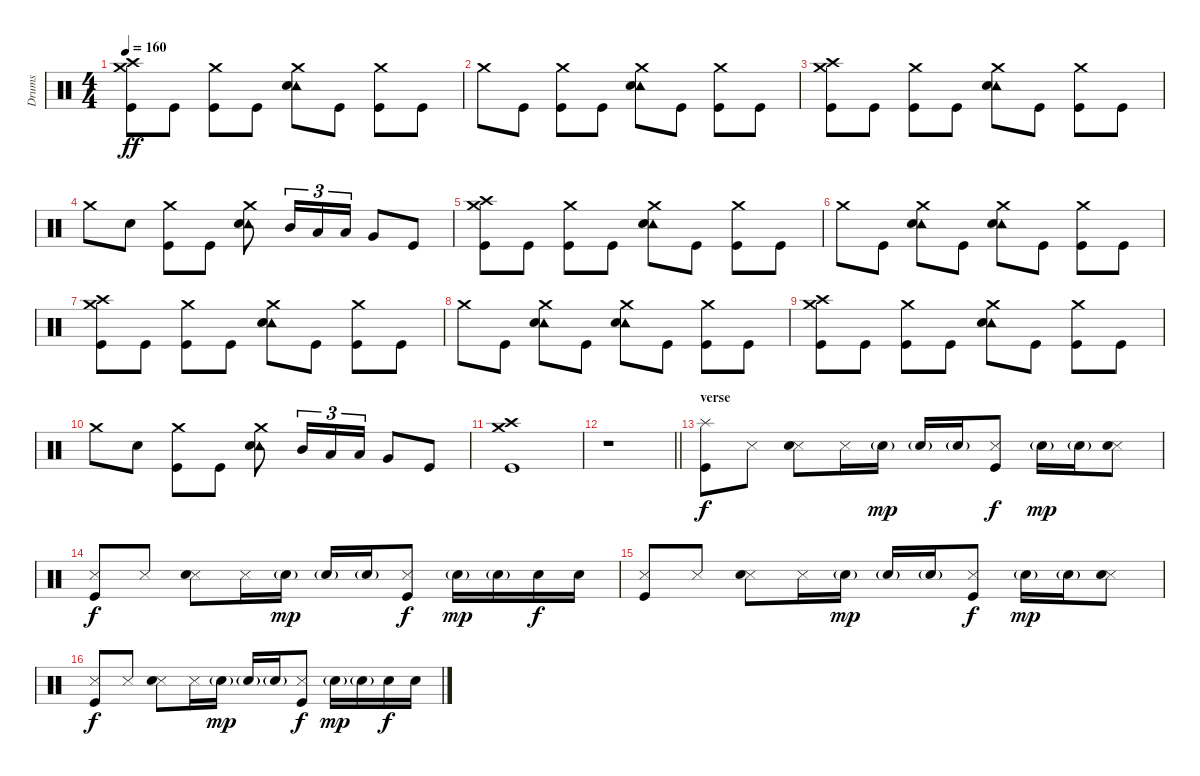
\track ("Drums" "Drums") {instrument percussion}
\staff {score}
\articulation defaults
\ts (4 4)
\tempo 160
\clef neutral
\ks c
("Crash medium (hit)" "Crash high (hit)" "Kick (hit)").8{dy ff} "Kick (hit)".8 ("Crash medium (hit)" "Kick (hit)").8 "Kick (hit)".8 ("Tambourine (hit)" "Crash medium (hit)" "Electric Snare (hit)").8 "Kick (hit)".8 ("Crash medium (hit)" "Kick (hit)").8 "Kick (hit)".8 |
"Crash medium (hit)".8 "Kick (hit)".8 ("Crash medium (hit)" "Kick (hit)").8 "Kick (hit)".8 ("Tambourine (hit)" "Crash medium (hit)" "Electric Snare (hit)").8 "Kick (hit)".8 ("Crash medium (hit)" "Kick (hit)").8 "Kick (hit)".8 |
("Crash medium (hit)" "Crash high (hit)" "Kick (hit)").8 "Kick (hit)".8 ("Crash medium (hit)" "Kick (hit)").8 "Kick (hit)".8 ("Tambourine (hit)" "Crash medium (hit)" "Electric Snare (hit)").8 "Kick (hit)".8 ("Crash medium (hit)" "Kick (hit)").8 "Kick (hit)".8 |
"Crash medium (hit)".8 "Electric Snare (hit)".8 ("Crash medium (hit)" "Kick (hit)").8 "Kick (hit)".8 ("Tambourine (hit)" "Crash medium (hit)" "Electric Snare (hit)").8 "Mid Tom (hit)".16{tu (3 2)} "Low Tom (hit)".16{tu (3 2)} "Low Tom (hit)".16{tu (3 2)} "Very Low Tom (hit)".8 "Kick (hit)".8 |
("Crash medium (hit)" "Crash high (hit)" "Kick (hit)").8 "Kick (hit)".8 ("Crash medium (hit)" "Kick (hit)").8 "Kick (hit)".8 ("Tambourine (hit)" "Crash medium (hit)" "Electric Snare (hit)").8 "Kick (hit)".8 ("Crash medium (hit)" "Kick (hit)").8 "Kick (hit)".8 |
"Crash medium (hit)".8 "Kick (hit)".8 ("Tambourine (hit)" "Crash medium (hit)" "Electric Snare (hit)").8 "Kick (hit)".8 ("Tambourine (hit)" "Crash medium (hit)" "Electric Snare (hit)").8 "Kick (hit)".8 ("Crash medium (hit)" "Kick (hit)").8 "Kick (hit)".8 |
("Crash medium (hit)" "Crash high (hit)" "Kick (hit)").8 "Kick (hit)".8 ("Crash medium (hit)" "Kick (hit)").8 "Kick (hit)".8 ("Tambourine (hit)" "Crash medium (hit)" "Electric Snare (hit)").8 "Kick (hit)".8 ("Crash medium (hit)" "Kick (hit)").8 "Kick (hit)".8 |
"Crash medium (hit)".8 "Kick (hit)".8 ("Tambourine (hit)" "Crash medium (hit)" "Electric Snare (hit)").8 "Kick (hit)".8 ("Tambourine (hit)" "Crash medium (hit)" "Electric Snare (hit)").8 "Kick (hit)".8 ("Crash medium (hit)" "Kick (hit)").8 "Kick (hit)".8 |
("Crash medium (hit)" "Crash high (hit)" "Kick (hit)").8 "Kick (hit)".8 ("Crash medium (hit)" "Kick (hit)").8 "Kick (hit)".8 ("Tambourine (hit)" "Crash medium (hit)" "Electric Snare (hit)").8 "Kick (hit)".8 ("Crash medium (hit)" "Kick (hit)").8 "Kick (hit)".8 |
"Crash medium (hit)".8 "Electric Snare (hit)".8 ("Crash medium (hit)" "Kick (hit)").8 "Kick (hit)".8 ("Tambourine (hit)" "Crash medium (hit)" "Electric Snare (hit)").8 "Mid Tom (hit)".16{tu (3 2)} "Low Tom (hit)".16{tu (3 2)} "Low Tom (hit)".16{tu (3 2)} "Very Low Tom (hit)".8 "Kick (hit)".8 |
("Crash medium (hit)" "Crash high (hit)" "Kick (hit)").1 |
\barLineRight lightlight
r.1 |
\section ("" "verse")
("Splash (hit)" "Kick (hit)").8{dy f volume 16} "Metronome (hit)".8 ("Metronome (hit)" "Electric Snare (hit)").8 "Metronome (hit)".16 "Electric Snare (hit)"{g}.16{dy mp} "Electric Snare (hit)"{g}.16 "Electric Snare (hit)"{g}.16 ("Metronome (hit)" "Kick (hit)").8{dy f} "Electric Snare (hit)"{g}.16{dy mp} "Electric Snare (hit)"{g}.16 ("Metronome (hit)" "Electric Snare (hit)").8 |
("Metronome (hit)" "Kick (hit)").8{dy f} "Metronome (hit)".8 ("Metronome (hit)" "Electric Snare (hit)").8 "Metronome (hit)".16 "Electric Snare (hit)"{g}.16{dy mp} "Electric Snare (hit)"{g}.16 "Electric Snare (hit)"{g}.16 ("Metronome (hit)" "Kick (hit)").8{dy f} "Electric Snare (hit)"{g}.16{dy mp} "Electric Snare (hit)"{g}.16 "Electric Snare (hit)".16{dy f} "Electric Snare (hit)".16 |
("Metronome (hit)" "Kick (hit)").8 "Metronome (hit)".8 ("Metronome (hit)" "Electric Snare (hit)").8 "Metronome (hit)".16 "Electric Snare (hit)"{g}.16{dy mp} "Electric Snare (hit)"{g}.16 "Electric Snare (hit)"{g}.16 ("Metronome (hit)" "Kick (hit)").8{dy f} "Electric Snare (hit)"{g}.16{dy mp} "Electric Snare (hit)"{g}.16 ("Metronome (hit)" "Electric Snare (hit)").8 |
("Metronome (hit)" "Kick (hit)").8{dy f} "Metronome (hit)".8 ("Metronome (hit)" "Electric Snare (hit)").8 "Metronome (hit)".16 "Electric Snare (hit)"{g}.16{dy mp} "Electric Snare (hit)"{g}.16 "Electric Snare (hit)"{g}.16 ("Metronome (hit)" "Kick (hit)").8{dy f} "Electric Snare (hit)"{g}.16{dy mp} "Electric Snare (hit)"{g}.16 "Electric Snare (hit)".16{dy f} "Electric Snare (hit)".16
